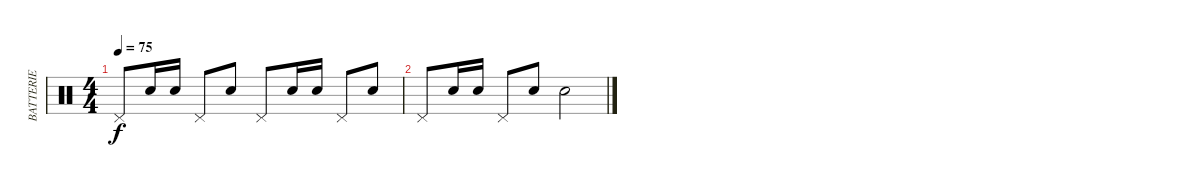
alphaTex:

\track ("BATTERIE" "BATTERIE") {instrument percussion}
\staff {score}
\articulation defaults
\ts (4 4)
\tempo 75
\clef neutral
\ks c "Pedal Hi-Hat (hit)".8{dy f} "Electric Snare (hit)".16 "Electric Snare (hit)".16 "Pedal Hi-Hat (hit)".8 "Electric Snare (hit)".8 "Pedal Hi-Hat (hit)".8 "Electric Snare (hit)".16 "Electric Snare (hit)".16 "Pedal Hi-Hat (hit)".8 "Electric Snare (hit)".8
|
"Pedal Hi-Hat (hit)".8 "Electric Snare (hit)".16 "Electric Snare (hit)".16 "Pedal Hi-Hat (hit)".8 "Electric Snare (hit)".8 "Electric Snare (hit)".2
